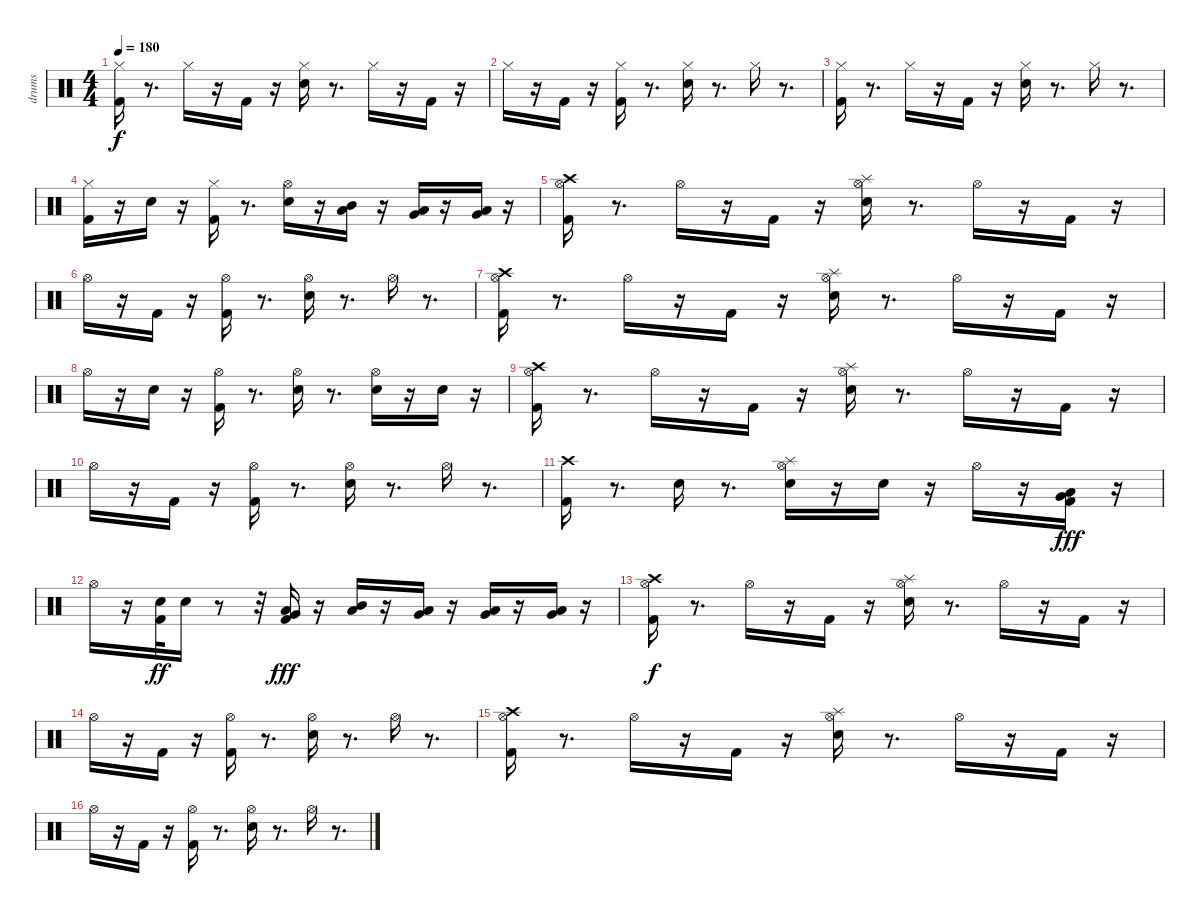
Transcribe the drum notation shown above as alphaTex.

\track ("drums" "drums") {instrument percussion}
\staff {score}
\articulation defaults
\ts (4 4)
\tempo 180
\clef neutral
\ks c
("Kick (hit) 2" "Hi-Hat (closed)").16{dy f} r.8{d} "Hi-Hat (closed)".16 r.16 "Kick (hit) 2".16 r.16 ("Electric Snare (hit)" "Hi-Hat (closed)").16 r.8{d} "Hi-Hat (closed)".16 r.16 "Kick (hit) 2".16 r.16 |
"Hi-Hat (closed)".16 r.16 "Kick (hit) 2".16 r.16 ("Hi-Hat (closed)" "Kick (hit) 2").16 r.8{d} ("Hi-Hat (closed)" "Electric Snare (hit)").16 r.8{d} "Hi-Hat (closed)".16 r.8{d} |
("Kick (hit) 2" "Hi-Hat (closed)").16 r.8{d} "Hi-Hat (closed)".16 r.16 "Kick (hit) 2".16 r.16 ("Electric Snare (hit)" "Hi-Hat (closed)").16 r.8{d} "Hi-Hat (closed)".16 r.8{d} |
("Hi-Hat (closed)" "Kick (hit) 2").16 r.16 "Electric Snare (hit)".16 r.16 ("Kick (hit) 2" "Hi-Hat (closed)").16 r.8{d} ("Hi-Hat (open)" "Electric Snare (hit)").16 r.16 ("Mid Tom (hit)" "Low Tom (hit)").16 r.16 ("Low Tom (hit)" "Very Low Tom (hit)").16 r.16 ("Very Low Tom (hit)" "Low Floor Tom (hit)").16 r.16 |
("Crash high (hit)" "Kick (hit) 2" "Hi-Hat (open)").16 r.8{d} "Hi-Hat (open)".16 r.16 "Kick (hit) 2".16 r.16 ("Electric Snare (hit)" "Hi-Hat (open)" "Splash (hit)").16 r.8{d} "Hi-Hat (open)".16 r.16 "Kick (hit) 2".16 r.16 |
"Hi-Hat (open)".16 r.16 "Kick (hit) 2".16 r.16 ("Hi-Hat (open)" "Kick (hit) 2").16 r.8{d} ("Hi-Hat (open)" "Electric Snare (hit)").16 r.8{d} "Hi-Hat (open)".16 r.8{d} |
("Crash high (hit)" "Kick (hit) 2" "Hi-Hat (open)").16 r.8{d} "Hi-Hat (open)".16 r.16 "Kick (hit) 2".16 r.16 ("Splash (hit)" "Electric Snare (hit)" "Hi-Hat (open)").16 r.8{d} "Hi-Hat (open)".16 r.16 "Kick (hit) 2".16 r.16 |
"Hi-Hat (open)".16 r.16 "Electric Snare (hit)".16 r.16 ("Hi-Hat (open)" "Kick (hit) 2").16 r.8{d} ("Hi-Hat (open)" "Electric Snare (hit)").16 r.8{d} ("Hi-Hat (open)" "Electric Snare (hit)").16 r.16 "Electric Snare (hit)".16 r.16 |
("Crash high (hit)" "Kick (hit) 2" "Hi-Hat (open)").16 r.8{d} "Hi-Hat (open)".16 r.16 "Kick (hit) 2".16 r.16 ("Splash (hit)" "Electric Snare (hit)" "Hi-Hat (open)").16 r.8{d} "Hi-Hat (open)".16 r.16 "Kick (hit) 2".16 r.16 |
"Hi-Hat (open)".16 r.16 "Kick (hit) 2".16 r.16 ("Hi-Hat (open)" "Kick (hit) 2").16 r.8{d} ("Hi-Hat (open)" "Electric Snare (hit)").16 r.8{d} "Hi-Hat (open)".16 r.8{d} |
("Crash high (hit)" "Kick (hit) 2").16 r.8{d} "Electric Snare (hit)".16 r.8{d} ("Splash (hit)" "Hi-Hat (open)" "Electric Snare (hit)").16 r.16 "Electric Snare (hit)".16 r.16 "Hi-Hat (open)".16 r.16 ("Very Low Tom (hit)" "Low Floor Tom (hit)" "Kick (hit) 2").16{dy fff} r.16 |
"Hi-Hat (open)".16 r.16 ("Electric Snare (hit)" "Kick (hit) 2").32{dy ff} "Electric Snare (hit)".16 r.8 r.32 ("Low Tom (hit)" "Very Low Tom (hit)" "Kick (hit) 2").16{dy fff} r.16 ("Low Tom (hit)" "Mid Tom (hit)").16 r.16 ("Very Low Tom (hit)" "Low Tom (hit)").16 r.16 ("Low Tom (hit)" "Very Low Tom (hit)").16 r.16 ("Very Low Tom (hit)" "Low Floor Tom (hit)").16 r.16 |
("Crash high (hit)" "Kick (hit) 2" "Hi-Hat (open)").16{dy f} r.8{d} "Hi-Hat (open)".16 r.16 "Kick (hit) 2".16 r.16 ("Splash (hit)" "Electric Snare (hit)" "Hi-Hat (open)").16 r.8{d} "Hi-Hat (open)".16 r.16 "Kick (hit) 2".16 r.16 |
"Hi-Hat (open)".16 r.16 "Kick (hit) 2".16 r.16 ("Hi-Hat (open)" "Kick (hit) 2").16 r.8{d} ("Hi-Hat (open)" "Electric Snare (hit)").16 r.8{d} "Hi-Hat (open)".16 r.8{d} |
("Crash high (hit)" "Kick (hit) 2" "Hi-Hat (open)").16 r.8{d} "Hi-Hat (open)".16 r.16 "Kick (hit) 2".16 r.16 ("Splash (hit)" "Electric Snare (hit)" "Hi-Hat (open)").16 r.8{d} "Hi-Hat (open)".16 r.16 "Kick (hit) 2".16 r.16 |
"Hi-Hat (open)".16 r.16 "Kick (hit) 2".16 r.16 ("Hi-Hat (open)" "Kick (hit) 2").16 r.8{d} ("Hi-Hat (open)" "Electric Snare (hit)").16 r.8{d} "Hi-Hat (open)".16 r.8{d}
